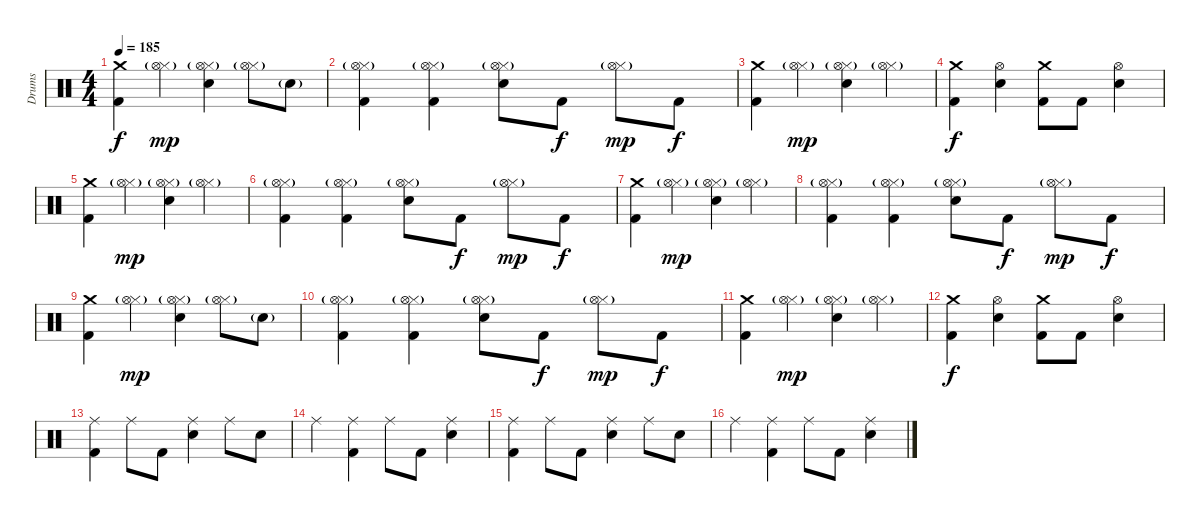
\track ("Drums" "Drums") {instrument percussion}
\staff {score}
\articulation defaults
\ts (4 4)
\tempo 185
\clef neutral
\ks c
("Crash medium (hit)" "Kick (hit) 2").4{dy f} ("Hi-Hat (closed)" "Hi-Hat (open)"{g}).4{dy mp} ("Hi-Hat (closed)" "Hi-Hat (open)"{g} "Electric Snare (hit)").4 ("Hi-Hat (closed)" "Hi-Hat (open)"{g}).8 "Electric Snare (hit)"{g}.8 |
("Hi-Hat (closed)" "Hi-Hat (open)"{g} "Kick (hit) 2").4 ("Hi-Hat (closed)" "Hi-Hat (open)"{g} "Kick (hit) 2").4 ("Hi-Hat (closed)" "Hi-Hat (open)"{g} "Electric Snare (hit)").8 "Kick (hit) 2".8{dy f} ("Hi-Hat (closed)" "Hi-Hat (open)"{g}).8{dy mp} "Kick (hit) 2".8{dy f} |
("Crash medium (hit)" "Kick (hit) 2").4 ("Hi-Hat (closed)" "Hi-Hat (open)"{g}).4{dy mp} ("Hi-Hat (closed)" "Hi-Hat (open)"{g} "Electric Snare (hit)").4 ("Hi-Hat (closed)" "Hi-Hat (open)"{g}).4 |
("Crash medium (hit)" "Kick (hit) 2").4{dy f} ("Hi-Hat (open)" "Electric Snare (hit)").4 ("Crash medium (hit)" "Kick (hit) 2").8 "Kick (hit) 2".8 ("Hi-Hat (open)" "Electric Snare (hit)").4 |
("Crash medium (hit)" "Kick (hit) 2").4 ("Hi-Hat (closed)" "Hi-Hat (open)"{g}).4{dy mp} ("Hi-Hat (closed)" "Hi-Hat (open)"{g} "Electric Snare (hit)").4 ("Hi-Hat (closed)" "Hi-Hat (open)"{g}).4 |
("Hi-Hat (closed)" "Hi-Hat (open)"{g} "Kick (hit) 2").4 ("Hi-Hat (closed)" "Hi-Hat (open)"{g} "Kick (hit) 2").4 ("Hi-Hat (closed)" "Hi-Hat (open)"{g} "Electric Snare (hit)").8 "Kick (hit) 2".8{dy f} ("Hi-Hat (closed)" "Hi-Hat (open)"{g}).8{dy mp} "Kick (hit) 2".8{dy f} |
("Crash medium (hit)" "Kick (hit) 2").4 ("Hi-Hat (closed)" "Hi-Hat (open)"{g}).4{dy mp} ("Hi-Hat (closed)" "Hi-Hat (open)"{g} "Electric Snare (hit)").4 ("Hi-Hat (closed)" "Hi-Hat (open)"{g}).4 |
("Hi-Hat (closed)" "Hi-Hat (open)"{g} "Kick (hit) 2").4 ("Hi-Hat (closed)" "Hi-Hat (open)"{g} "Kick (hit) 2").4 ("Hi-Hat (closed)" "Hi-Hat (open)"{g} "Electric Snare (hit)").8 "Kick (hit) 2".8{dy f} ("Hi-Hat (closed)" "Hi-Hat (open)"{g}).8{dy mp} "Kick (hit) 2".8{dy f} |
("Crash medium (hit)" "Kick (hit) 2").4 ("Hi-Hat (closed)" "Hi-Hat (open)"{g}).4{dy mp} ("Hi-Hat (closed)" "Hi-Hat (open)"{g} "Electric Snare (hit)").4 ("Hi-Hat (closed)" "Hi-Hat (open)"{g}).8 "Electric Snare (hit)"{g}.8 |
("Hi-Hat (closed)" "Hi-Hat (open)"{g} "Kick (hit) 2").4 ("Hi-Hat (closed)" "Hi-Hat (open)"{g} "Kick (hit) 2").4 ("Hi-Hat (closed)" "Hi-Hat (open)"{g} "Electric Snare (hit)").8 "Kick (hit) 2".8{dy f} ("Hi-Hat (closed)" "Hi-Hat (open)"{g}).8{dy mp} "Kick (hit) 2".8{dy f} |
("Crash medium (hit)" "Kick (hit) 2").4 ("Hi-Hat (closed)" "Hi-Hat (open)"{g}).4{dy mp} ("Hi-Hat (closed)" "Hi-Hat (open)"{g} "Electric Snare (hit)").4 ("Hi-Hat (closed)" "Hi-Hat (open)"{g}).4 |
("Crash medium (hit)" "Kick (hit) 2").4{dy f} ("Hi-Hat (open)" "Electric Snare (hit)").4 ("Crash medium (hit)" "Kick (hit) 2").8 "Kick (hit) 2".8 ("Hi-Hat (open)" "Electric Snare (hit)").4 |
("Ride (middle)" "Kick (hit) 2").4 "Ride (middle)".8 "Kick (hit) 2".8 ("Ride (middle)" "Electric Snare (hit)").4 "Ride (middle)".8 "Electric Snare (hit)".8 |
"Ride (middle)".4 ("Ride (middle)" "Kick (hit) 2").4 "Ride (middle)".8 "Kick (hit) 2".8 ("Ride (middle)" "Electric Snare (hit)").4 |
("Ride (middle)" "Kick (hit) 2").4 "Ride (middle)".8 "Kick (hit) 2".8 ("Ride (middle)" "Electric Snare (hit)").4 "Ride (middle)".8 "Electric Snare (hit)".8 |
"Ride (middle)".4 ("Ride (middle)" "Kick (hit) 2").4 "Ride (middle)".8 "Kick (hit) 2".8 ("Ride (middle)" "Electric Snare (hit)").4
